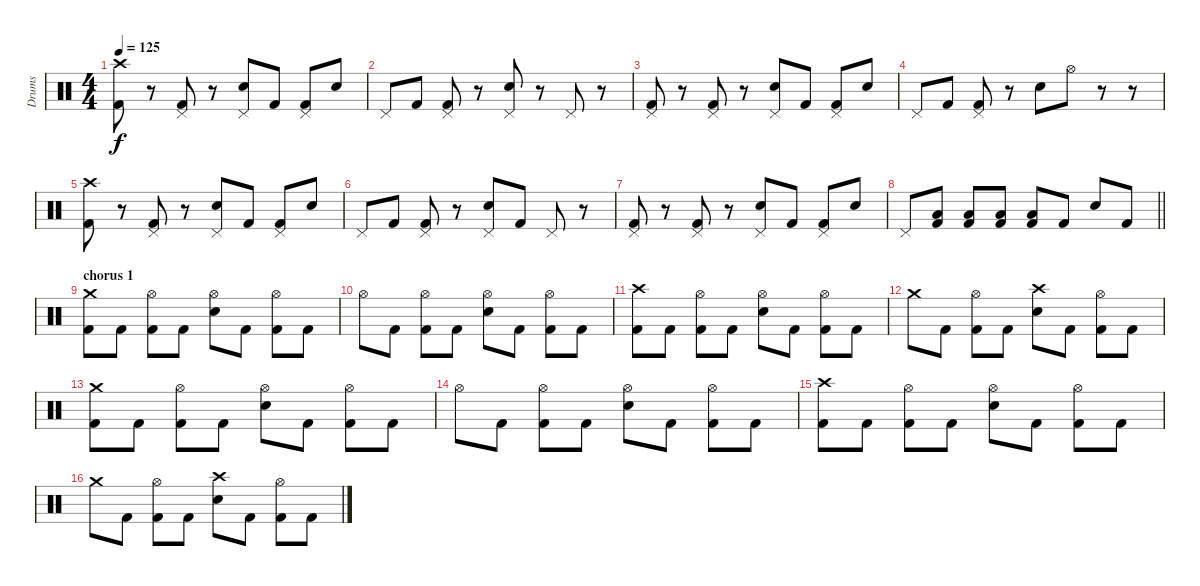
\track ("Drums" "Drums") {instrument percussion}
\staff {score}
\articulation defaults
\ts (4 4)
\tempo 125
\clef neutral
\ks c
("Crash high (hit)" "Kick (hit) 2").8{dy f} r.8 ("Pedal Hi-Hat (hit)" "Kick (hit) 2").8 r.8 ("Pedal Hi-Hat (hit)" "Snare (hit) 2").8 "Kick (hit) 2".8 ("Pedal Hi-Hat (hit)" "Kick (hit) 2").8 "Snare (hit) 2".8 |
"Pedal Hi-Hat (hit)".8 "Kick (hit) 2".8 ("Pedal Hi-Hat (hit)" "Kick (hit) 2").8 r.8 ("Pedal Hi-Hat (hit)" "Snare (hit) 2").8 r.8 "Pedal Hi-Hat (hit)".8 r.8 |
("Pedal Hi-Hat (hit)" "Kick (hit) 2").8 r.8 ("Pedal Hi-Hat (hit)" "Kick (hit) 2").8 r.8 ("Pedal Hi-Hat (hit)" "Snare (hit) 2").8 "Kick (hit) 2".8 ("Pedal Hi-Hat (hit)" "Kick (hit) 2").8 "Snare (hit) 2".8 |
"Pedal Hi-Hat (hit)".8 "Kick (hit) 2".8 ("Pedal Hi-Hat (hit)" "Kick (hit) 2").8 r.8 "Snare (hit) 2".8 "Hi-Hat (open)".8 r.8 r.8 |
("Crash high (hit)" "Kick (hit) 2").8 r.8 ("Pedal Hi-Hat (hit)" "Kick (hit) 2").8 r.8 ("Pedal Hi-Hat (hit)" "Snare (hit) 2").8 "Kick (hit) 2".8 ("Pedal Hi-Hat (hit)" "Kick (hit) 2").8 "Snare (hit) 2".8 |
"Pedal Hi-Hat (hit)".8 "Kick (hit) 2".8 ("Pedal Hi-Hat (hit)" "Kick (hit) 2").8 r.8 ("Pedal Hi-Hat (hit)" "Snare (hit) 2").8 "Kick (hit) 2".8 "Pedal Hi-Hat (hit)".8 r.8 |
("Pedal Hi-Hat (hit)" "Kick (hit) 2").8 r.8 ("Pedal Hi-Hat (hit)" "Kick (hit) 2").8 r.8 ("Pedal Hi-Hat (hit)" "Snare (hit) 2").8 "Kick (hit) 2".8 ("Pedal Hi-Hat (hit)" "Kick (hit) 2").8 "Snare (hit) 2".8 |
\barLineRight lightlight "Pedal Hi-Hat (hit)".8
("Low Floor Tom (hit)" "Kick (hit) 2").8 ("Low Floor Tom (hit)" "Kick (hit) 2").8 ("Low Floor Tom (hit)" "Kick (hit) 2").8 ("Low Floor Tom (hit)" "Kick (hit) 2").8 "Kick (hit) 2".8 "Snare (hit) 2".8 "Kick (hit) 2".8 |
\section ("" "chorus 1")
("Crash medium (hit)" "Kick (hit) 2").8 "Kick (hit) 2".8 ("Hi-Hat (open)" "Kick (hit) 2").8 "Kick (hit) 2".8 ("Hi-Hat (open)" "Snare (hit) 2").8 "Kick (hit) 2".8 ("Hi-Hat (open)" "Kick (hit) 2").8 "Kick (hit) 2".8 |
"Hi-Hat (open)".8 "Kick (hit) 2".8 ("Hi-Hat (open)" "Kick (hit) 2").8 "Kick (hit) 2".8 ("Hi-Hat (open)" "Snare (hit) 2").8 "Kick (hit) 2".8 ("Hi-Hat (open)" "Kick (hit) 2").8 "Kick (hit) 2".8 |
("Crash high (hit)" "Kick (hit) 2").8 "Kick (hit) 2".8 ("Hi-Hat (open)" "Kick (hit) 2").8 "Kick (hit) 2".8 ("Hi-Hat (open)" "Snare (hit) 2").8 "Kick (hit) 2".8 ("Hi-Hat (open)" "Kick (hit) 2").8 "Kick (hit) 2".8 |
"Crash medium (hit)".8 "Kick (hit) 2".8 ("Hi-Hat (open)" "Kick (hit) 2").8 "Kick (hit) 2".8 ("Crash high (hit)" "Snare (hit) 2").8 "Kick (hit) 2".8 ("Hi-Hat (open)" "Kick (hit) 2").8 "Kick (hit) 2".8 |
("Crash medium (hit)" "Kick (hit) 2").8 "Kick (hit) 2".8 ("Hi-Hat (open)" "Kick (hit) 2").8 "Kick (hit) 2".8 ("Hi-Hat (open)" "Snare (hit) 2").8 "Kick (hit) 2".8 ("Hi-Hat (open)" "Kick (hit) 2").8 "Kick (hit) 2".8 |
"Hi-Hat (open)".8 "Kick (hit) 2".8 ("Hi-Hat (open)" "Kick (hit) 2").8 "Kick (hit) 2".8 ("Hi-Hat (open)" "Snare (hit) 2").8 "Kick (hit) 2".8 ("Hi-Hat (open)" "Kick (hit) 2").8 "Kick (hit) 2".8 |
("Crash high (hit)" "Kick (hit) 2").8 "Kick (hit) 2".8 ("Hi-Hat (open)" "Kick (hit) 2").8 "Kick (hit) 2".8 ("Hi-Hat (open)" "Snare (hit) 2").8 "Kick (hit) 2".8 ("Hi-Hat (open)" "Kick (hit) 2").8 "Kick (hit) 2".8 |
"Crash medium (hit)".8 "Kick (hit) 2".8 ("Hi-Hat (open)" "Kick (hit) 2").8 "Kick (hit) 2".8 ("Crash high (hit)" "Snare (hit) 2").8 "Kick (hit) 2".8 ("Hi-Hat (open)" "Kick (hit) 2").8 "Kick (hit) 2".8
